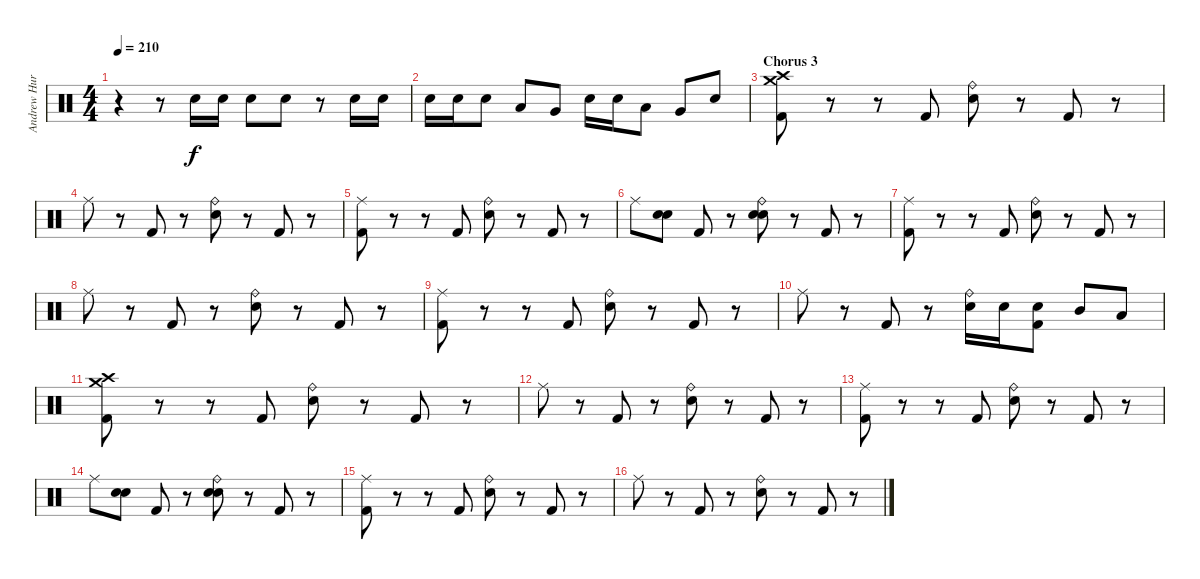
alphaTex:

\track ("Andrew Hurley (Drums)" "Andrew Hur") {instrument percussion}
\staff {score}
\articulation defaults
\ts (4 4)
\tempo 210
\clef neutral
\ks c
r.4{dy f} r.8 "Electric Snare (hit)".16 "Electric Snare (hit)".16 "Electric Snare (hit)".8 "Electric Snare (hit)".8 r.8 "Electric Snare (hit)".16 "Electric Snare (hit)".16 |
"Electric Snare (hit)".16 "Electric Snare (hit)".16 "Electric Snare (hit)".8 "Low Tom (hit)".8 "Very Low Tom (hit)".8 "Electric Snare (hit)".16 "Electric Snare (hit)".16 "Low Tom (hit)".8 "Very Low Tom (hit)".8 "Electric Snare (hit)".8 |
\section ("" "Chorus 3")
("Crash medium (hit)" "Crash high (hit)" "Kick (hit) 2").8 r.8 r.8 "Kick (hit) 2".8 ("Ride (bell)" "Electric Snare (hit)").8 r.8 "Kick (hit) 2".8 r.8 |
"Ride (middle)".8 r.8 "Kick (hit) 2".8 r.8 ("Ride (bell)" "Electric Snare (hit)").8 r.8 "Kick (hit) 2".8 r.8 |
("Ride (middle)" "Kick (hit) 2").8 r.8 r.8 "Kick (hit) 2".8 ("Ride (bell)" "Electric Snare (hit)").8 r.8 "Kick (hit) 2".8 r.8 |
"Ride (middle)".8 ("Snare (hit) 2" "Electric Snare (hit)").8 "Kick (hit) 2".8 r.8 ("Ride (bell)" "Snare (hit) 2" "Electric Snare (hit)").8 r.8 "Kick (hit) 2".8 r.8 |
("Ride (middle)" "Kick (hit) 2").8 r.8 r.8 "Kick (hit) 2".8 ("Ride (bell)" "Electric Snare (hit)").8 r.8 "Kick (hit) 2".8 r.8 |
"Ride (middle)".8 r.8 "Kick (hit) 2".8 r.8 ("Ride (bell)" "Electric Snare (hit)").8 r.8 "Kick (hit) 2".8 r.8 |
("Ride (middle)" "Kick (hit) 2").8 r.8 r.8 "Kick (hit) 2".8 ("Ride (bell)" "Electric Snare (hit)").8 r.8 "Kick (hit) 2".8 r.8 |
"Ride (middle)".8 r.8 "Kick (hit) 2".8 r.8 ("Ride (bell)" "Electric Snare (hit)").16 "Electric Snare (hit)".16 ("Electric Snare (hit)" "Kick (hit) 2").8 "Mid Tom (hit)".8 "Low Tom (hit)".8 |
("Crash medium (hit)" "Crash high (hit)" "Kick (hit) 2").8 r.8 r.8 "Kick (hit) 2".8 ("Ride (bell)" "Electric Snare (hit)").8 r.8 "Kick (hit) 2".8 r.8 |
"Ride (middle)".8 r.8 "Kick (hit) 2".8 r.8 ("Ride (bell)" "Electric Snare (hit)").8 r.8 "Kick (hit) 2".8 r.8 |
("Ride (middle)" "Kick (hit) 2").8 r.8 r.8 "Kick (hit) 2".8 ("Ride (bell)" "Electric Snare (hit)").8 r.8 "Kick (hit) 2".8 r.8 |
"Ride (middle)".8 ("Snare (hit) 2" "Electric Snare (hit)").8 "Kick (hit) 2".8 r.8 ("Ride (bell)" "Snare (hit) 2" "Electric Snare (hit)").8 r.8 "Kick (hit) 2".8 r.8 |
("Ride (middle)" "Kick (hit) 2").8 r.8 r.8 "Kick (hit) 2".8 ("Ride (bell)" "Electric Snare (hit)").8 r.8 "Kick (hit) 2".8 r.8 |
"Ride (middle)".8 r.8 "Kick (hit) 2".8 r.8 ("Ride (bell)" "Electric Snare (hit)").8 r.8 "Kick (hit) 2".8 r.8
